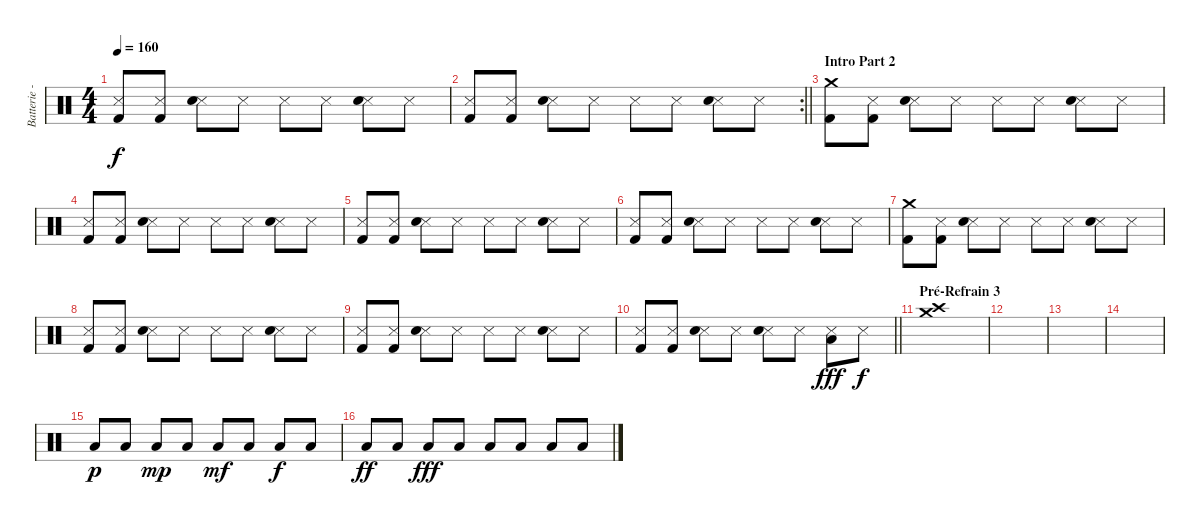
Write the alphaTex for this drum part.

\track ("Batterie - Mikko" "Batterie -") {instrument percussion}
\staff {score}
\articulation defaults
\ts (4 4)
\tempo 160
\clef neutral
\ks c
("Snare (side stick) 3" "Kick (hit) 2").8{dy f} ("Snare (side stick) 3" "Kick (hit) 2").8 ("Snare (side stick) 3" "Snare (hit) 2").8 "Snare (side stick) 3".8 "Snare (side stick) 3".8 "Snare (side stick) 3".8 ("Snare (side stick) 3" "Snare (hit) 2").8 "Snare (side stick) 3".8 |
\rc 2
\barLineRight lightlight
("Snare (side stick) 3" "Kick (hit) 2").8 ("Snare (side stick) 3" "Kick (hit) 2").8 ("Snare (side stick) 3" "Snare (hit) 2").8 "Snare (side stick) 3".8 "Snare (side stick) 3".8 "Snare (side stick) 3".8 ("Snare (side stick) 3" "Snare (hit) 2").8 "Snare (side stick) 3".8 |
\section ("" "Intro Part 2")
("Crash medium (hit)" "Kick (hit) 2").8 ("Snare (side stick) 3" "Kick (hit) 2").8 ("Snare (side stick) 3" "Snare (hit) 2").8 "Snare (side stick) 3".8 "Snare (side stick) 3".8 "Snare (side stick) 3".8 ("Snare (side stick) 3" "Snare (hit) 2").8 "Snare (side stick) 3".8 |
("Snare (side stick) 3" "Kick (hit) 2").8 ("Snare (side stick) 3" "Kick (hit) 2").8 ("Snare (side stick) 3" "Snare (hit) 2").8 "Snare (side stick) 3".8 "Snare (side stick) 3".8 "Snare (side stick) 3".8 ("Snare (side stick) 3" "Snare (hit) 2").8 "Snare (side stick) 3".8 |
("Snare (side stick) 3" "Kick (hit) 2").8 ("Snare (side stick) 3" "Kick (hit) 2").8 ("Snare (side stick) 3" "Snare (hit) 2").8 "Snare (side stick) 3".8 "Snare (side stick) 3".8 "Snare (side stick) 3".8 ("Snare (side stick) 3" "Snare (hit) 2").8 "Snare (side stick) 3".8 |
("Snare (side stick) 3" "Kick (hit) 2").8 ("Snare (side stick) 3" "Kick (hit) 2").8 ("Snare (side stick) 3" "Snare (hit) 2").8 "Snare (side stick) 3".8 "Snare (side stick) 3".8 "Snare (side stick) 3".8 ("Snare (side stick) 3" "Snare (hit) 2").8 "Snare (side stick) 3".8 |
("Crash medium (hit)" "Kick (hit) 2").8 ("Snare (side stick) 3" "Kick (hit) 2").8 ("Snare (side stick) 3" "Snare (hit) 2").8 "Snare (side stick) 3".8 "Snare (side stick) 3".8 "Snare (side stick) 3".8 ("Snare (side stick) 3" "Snare (hit) 2").8 "Snare (side stick) 3".8 |
("Snare (side stick) 3" "Kick (hit) 2").8 ("Snare (side stick) 3" "Kick (hit) 2").8 ("Snare (side stick) 3" "Snare (hit) 2").8 "Snare (side stick) 3".8 "Snare (side stick) 3".8 "Snare (side stick) 3".8 ("Snare (side stick) 3" "Snare (hit) 2").8 "Snare (side stick) 3".8 |
("Snare (side stick) 3" "Kick (hit) 2").8 ("Snare (side stick) 3" "Kick (hit) 2").8 ("Snare (side stick) 3" "Snare (hit) 2").8 "Snare (side stick) 3".8 "Snare (side stick) 3".8 "Snare (side stick) 3".8 ("Snare (side stick) 3" "Snare (hit) 2").8 "Snare (side stick) 3".8 |
\barLineRight lightlight
("Snare (side stick) 3" "Kick (hit) 2").8 ("Snare (side stick) 3" "Kick (hit) 2").8 ("Snare (side stick) 3" "Snare (hit) 2").8 "Snare (side stick) 3".8 ("Snare (side stick) 3" "Snare (hit) 2").8 "Snare (side stick) 3".8 ("Snare (side stick) 3" "Low Tom (hit)").8{dy fff} "Snare (side stick) 3".8{dy f} |
\section ("" "Pré-Refrain 3")
("Crash high (hit)" "Crash medium (hit)").1 |
|
|
|
"Low Tom (hit)".8{dy p} "Low Tom (hit)".8 "Low Tom (hit)".8{dy mp} "Low Tom (hit)".8 "Low Tom (hit)".8{dy mf} "Low Tom (hit)".8 "Low Tom (hit)".8{dy f} "Low Tom (hit)".8 |
"Low Tom (hit)".8{dy ff} "Low Tom (hit)".8 "Low Tom (hit)".8{dy fff} "Low Tom (hit)".8 "Low Tom (hit)".8 "Low Tom (hit)".8 "Low Tom (hit)".8 "Low Tom (hit)".8
